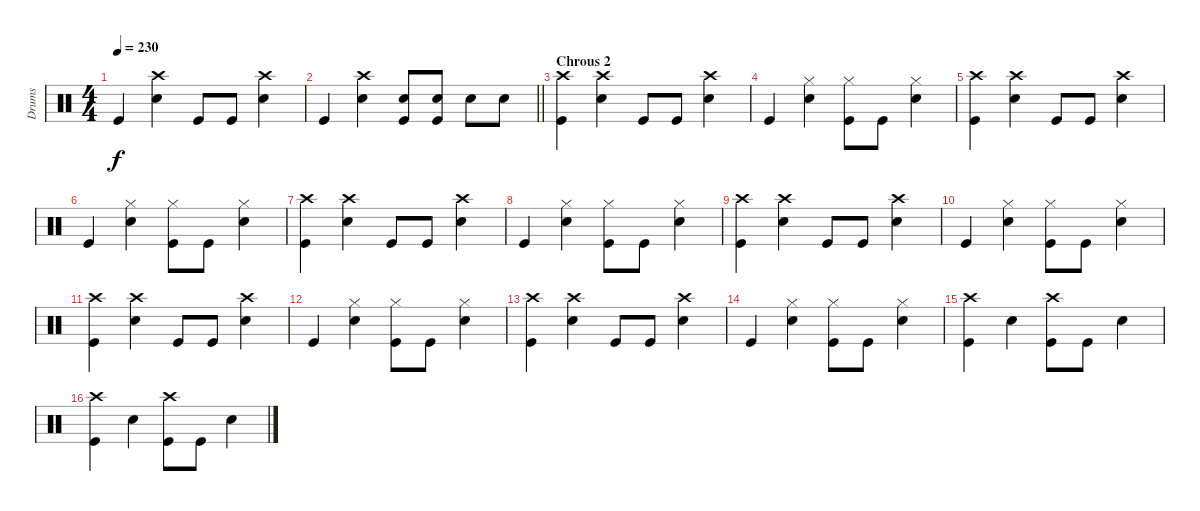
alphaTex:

\track ("Drums" "Drums") {instrument percussion}
\staff {score}
\articulation defaults
\ts (4 4)
\tempo 230
\clef neutral
\ks c "Kick (hit)".4{dy f}
("Crash high (hit)" "Snare (hit) 2").4 "Kick (hit)".8 "Kick (hit)".8 ("Crash high (hit)" "Snare (hit) 2").4 |
\barLineRight lightlight "Kick (hit)".4
("Crash high (hit)" "Snare (hit) 2").4 ("Snare (hit) 2" "Kick (hit)").8 ("Snare (hit) 2" "Kick (hit)").8 "Snare (hit) 2".8 "Snare (hit) 2".8 |
\section ("" "Chrous 2")
("Crash high (hit)" "Kick (hit)").4 ("Crash high (hit)" "Snare (hit) 2").4 "Kick (hit)".8 "Kick (hit)".8 ("Crash high (hit)" "Snare (hit) 2").4 |
"Kick (hit)".4 ("Hi-Hat (closed)" "Snare (hit) 2").4 ("Hi-Hat (closed)" "Kick (hit)").8 "Kick (hit)".8 ("Hi-Hat (closed)" "Snare (hit) 2").4 |
("Crash high (hit)" "Kick (hit)").4 ("Crash high (hit)" "Snare (hit) 2").4 "Kick (hit)".8 "Kick (hit)".8 ("Crash high (hit)" "Snare (hit) 2").4 |
"Kick (hit)".4 ("Hi-Hat (closed)" "Snare (hit) 2").4 ("Hi-Hat (closed)" "Kick (hit)").8 "Kick (hit)".8 ("Hi-Hat (closed)" "Snare (hit) 2").4 |
("Crash high (hit)" "Kick (hit)").4 ("Crash high (hit)" "Snare (hit) 2").4 "Kick (hit)".8 "Kick (hit)".8 ("Crash high (hit)" "Snare (hit) 2").4 |
"Kick (hit)".4 ("Hi-Hat (closed)" "Snare (hit) 2").4 ("Hi-Hat (closed)" "Kick (hit)").8 "Kick (hit)".8 ("Hi-Hat (closed)" "Snare (hit) 2").4 |
("Crash high (hit)" "Kick (hit)").4 ("Crash high (hit)" "Snare (hit) 2").4 "Kick (hit)".8 "Kick (hit)".8 ("Crash high (hit)" "Snare (hit) 2").4 |
"Kick (hit)".4 ("Hi-Hat (closed)" "Snare (hit) 2").4 ("Hi-Hat (closed)" "Kick (hit)").8 "Kick (hit)".8 ("Hi-Hat (closed)" "Snare (hit) 2").4 |
("Crash high (hit)" "Kick (hit)").4 ("Crash high (hit)" "Snare (hit) 2").4 "Kick (hit)".8 "Kick (hit)".8 ("Crash high (hit)" "Snare (hit) 2").4 |
"Kick (hit)".4 ("Hi-Hat (closed)" "Snare (hit) 2").4 ("Hi-Hat (closed)" "Kick (hit)").8 "Kick (hit)".8 ("Hi-Hat (closed)" "Snare (hit) 2").4 |
("Crash high (hit)" "Kick (hit)").4 ("Crash high (hit)" "Snare (hit) 2").4 "Kick (hit)".8 "Kick (hit)".8 ("Crash high (hit)" "Snare (hit) 2").4 |
"Kick (hit)".4 ("Hi-Hat (closed)" "Snare (hit) 2").4 ("Hi-Hat (closed)" "Kick (hit)").8 "Kick (hit)".8 ("Hi-Hat (closed)" "Snare (hit) 2").4 |
("Crash high (hit)" "Kick (hit)").4 "Snare (hit) 2".4 ("Crash high (hit)" "Kick (hit)").8 "Kick (hit)".8 "Snare (hit) 2".4 |
("Crash high (hit)" "Kick (hit)").4 "Snare (hit) 2".4 ("Crash high (hit)" "Kick (hit)").8 "Kick (hit)".8 "Snare (hit) 2".4
